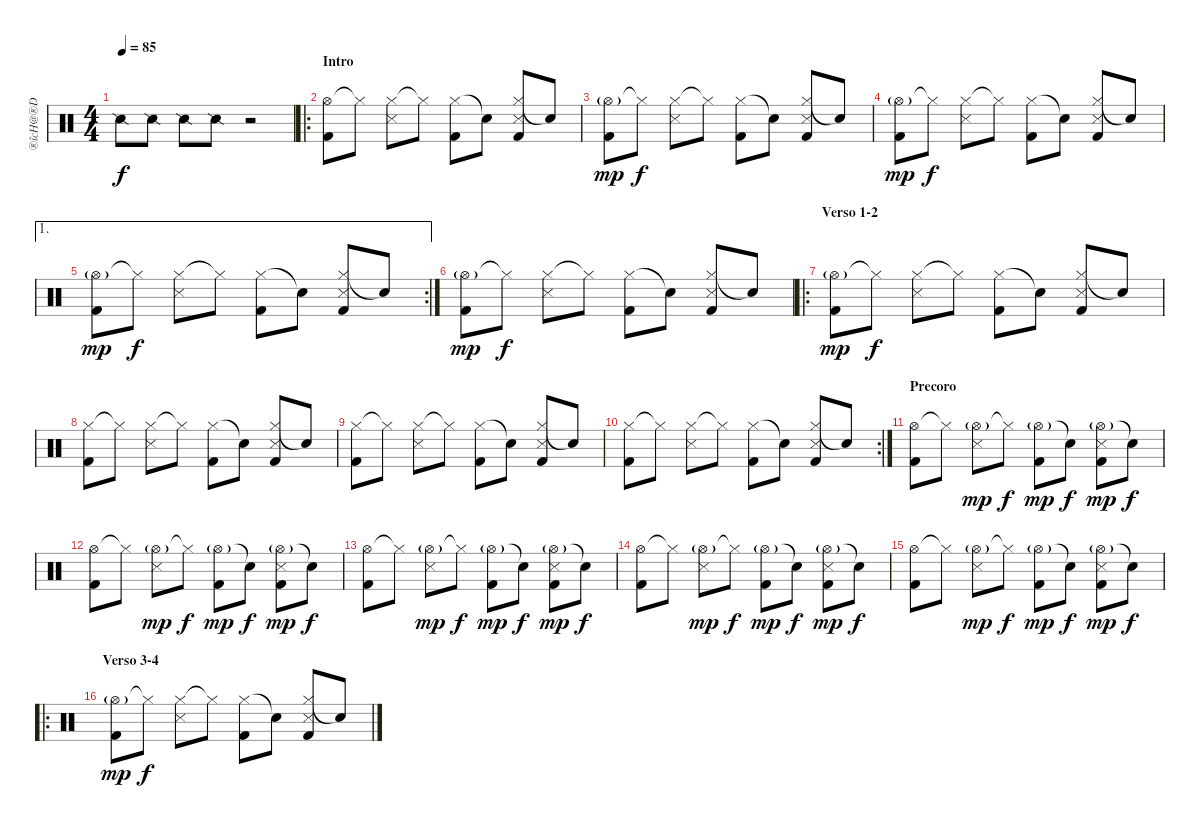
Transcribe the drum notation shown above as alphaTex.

\track ("®îcH@®D" "®îcH@®D") {instrument percussion}
\staff {score}
\articulation defaults
\ts (4 4)
\tempo 85
\clef neutral
\ks c "Snare (side stick) 2".8{dy f} "Snare (side stick) 2".8 "Snare (side stick) 2".8 "Snare (side stick) 2".8
r.2 |
\ro
\section ("" "Intro")
("Hi-Hat (open)" "Kick (hit) 2").8 "Hi-Hat (closed)"{t}.8 ("Hi-Hat (closed)" "Snare (side stick) 3").8 "Hi-Hat (closed)"{t}.8 ("Hi-Hat (closed)" "Kick (hit) 2").8 "Snare (hit)"{t}.8 ("Hi-Hat (closed)" "Snare (side stick) 3" "Kick (hit) 2").8 "Snare (hit)"{t}.8 |
("Hi-Hat (open)"{g} "Kick (hit) 2").8{dy mp} "Hi-Hat (closed)"{t}.8{dy f} ("Hi-Hat (closed)" "Snare (side stick) 3").8 "Hi-Hat (closed)"{t}.8 ("Hi-Hat (closed)" "Kick (hit) 2").8 "Snare (hit)"{t}.8 ("Hi-Hat (closed)" "Snare (side stick) 3" "Kick (hit) 2").8 "Snare (hit)"{t}.8 |
("Hi-Hat (open)"{g} "Kick (hit) 2").8{dy mp} "Hi-Hat (closed)"{t}.8{dy f} ("Hi-Hat (closed)" "Snare (side stick) 3").8 "Hi-Hat (closed)"{t}.8 ("Hi-Hat (closed)" "Kick (hit) 2").8 "Snare (hit)"{t}.8 ("Hi-Hat (closed)" "Snare (side stick) 3" "Kick (hit) 2").8 "Snare (hit)"{t}.8 |
\ae 1
\rc 2
("Hi-Hat (open)"{g} "Kick (hit) 2").8{dy mp} "Hi-Hat (closed)"{t}.8{dy f} ("Hi-Hat (closed)" "Snare (side stick) 3").8 "Hi-Hat (closed)"{t}.8 ("Hi-Hat (closed)" "Kick (hit) 2").8 "Snare (hit)"{t}.8 ("Hi-Hat (closed)" "Snare (side stick) 3" "Kick (hit) 2").8 "Snare (hit)"{t}.8 |
("Hi-Hat (open)"{g} "Kick (hit) 2").8{dy mp} "Hi-Hat (closed)"{t}.8{dy f} ("Hi-Hat (closed)" "Snare (side stick) 3").8 "Hi-Hat (closed)"{t}.8 ("Hi-Hat (closed)" "Kick (hit) 2").8 "Snare (hit)"{t}.8 ("Hi-Hat (closed)" "Snare (side stick) 3" "Kick (hit) 2").8 "Snare (hit)"{t}.8 |
\ro
\section ("" "Verso 1-2")
("Hi-Hat (open)"{g} "Kick (hit) 2").8{dy mp} "Hi-Hat (closed)"{t}.8{dy f} ("Hi-Hat (closed)" "Snare (side stick) 3").8 "Hi-Hat (closed)"{t}.8 ("Hi-Hat (closed)" "Kick (hit) 2").8 "Snare (hit)"{t}.8 ("Hi-Hat (closed)" "Snare (side stick) 3" "Kick (hit) 2").8 "Snare (hit)"{t}.8 |
("Hi-Hat (closed)" "Kick (hit) 2").8 "Hi-Hat (closed)"{t}.8 ("Hi-Hat (closed)" "Snare (side stick) 3").8 "Hi-Hat (closed)"{t}.8 ("Hi-Hat (closed)" "Kick (hit) 2").8 "Snare (hit)"{t}.8 ("Hi-Hat (closed)" "Snare (side stick) 3" "Kick (hit) 2").8 "Snare (hit)"{t}.8 |
("Hi-Hat (closed)" "Kick (hit) 2").8 "Hi-Hat (closed)"{t}.8 ("Hi-Hat (closed)" "Snare (side stick) 3").8 "Hi-Hat (closed)"{t}.8 ("Hi-Hat (closed)" "Kick (hit) 2").8 "Snare (hit)"{t}.8 ("Hi-Hat (closed)" "Snare (side stick) 3" "Kick (hit) 2").8 "Snare (hit)"{t}.8 |
\rc 2
("Hi-Hat (closed)" "Kick (hit) 2").8 "Hi-Hat (closed)"{t}.8 ("Hi-Hat (closed)" "Snare (side stick) 3").8 "Hi-Hat (closed)"{t}.8 ("Hi-Hat (closed)" "Kick (hit) 2").8 "Snare (hit)"{t}.8 ("Hi-Hat (closed)" "Snare (side stick) 3" "Kick (hit) 2").8 "Snare (hit)"{t}.8 |
\section ("" "Precoro")
("Hi-Hat (open)" "Kick (hit) 2").8{volume 16} "Hi-Hat (closed)"{t}.8 ("Hi-Hat (open)"{g} "Snare (side stick) 3").8{dy mp} "Hi-Hat (closed)"{t}.8{dy f} ("Hi-Hat (open)"{g} "Kick (hit) 2").8{dy mp} "Snare (hit)"{t}.8{dy f} ("Hi-Hat (open)"{g} "Snare (side stick) 3" "Kick (hit) 2").8{dy mp} "Snare (hit)"{t}.8{dy f} |
("Hi-Hat (open)" "Kick (hit) 2").8 "Hi-Hat (closed)"{t}.8 ("Hi-Hat (open)"{g} "Snare (side stick) 3").8{dy mp} "Hi-Hat (closed)"{t}.8{dy f} ("Hi-Hat (open)"{g} "Kick (hit) 2").8{dy mp} "Snare (hit)"{t}.8{dy f} ("Hi-Hat (open)"{g} "Snare (side stick) 3" "Kick (hit) 2").8{dy mp} "Snare (hit)"{t}.8{dy f} |
("Hi-Hat (open)" "Kick (hit) 2").8 "Hi-Hat (closed)"{t}.8 ("Hi-Hat (open)"{g} "Snare (side stick) 3").8{dy mp} "Hi-Hat (closed)"{t}.8{dy f} ("Hi-Hat (open)"{g} "Kick (hit) 2").8{dy mp} "Snare (hit)"{t}.8{dy f} ("Hi-Hat (open)"{g} "Snare (side stick) 3" "Kick (hit) 2").8{dy mp} "Snare (hit)"{t}.8{dy f} |
("Hi-Hat (open)" "Kick (hit) 2").8 "Hi-Hat (closed)"{t}.8 ("Hi-Hat (open)"{g} "Snare (side stick) 3").8{dy mp} "Hi-Hat (closed)"{t}.8{dy f} ("Hi-Hat (open)"{g} "Kick (hit) 2").8{dy mp} "Snare (hit)"{t}.8{dy f} ("Hi-Hat (open)"{g} "Snare (side stick) 3" "Kick (hit) 2").8{dy mp} "Snare (hit)"{t}.8{dy f} |
("Hi-Hat (open)" "Kick (hit) 2").8 "Hi-Hat (closed)"{t}.8 ("Hi-Hat (open)"{g} "Snare (side stick) 3").8{dy mp} "Hi-Hat (closed)"{t}.8{dy f} ("Hi-Hat (open)"{g} "Kick (hit) 2").8{dy mp} "Snare (hit)"{t}.8{dy f} ("Hi-Hat (open)"{g} "Snare (side stick) 3" "Kick (hit) 2").8{dy mp} "Snare (hit)"{t}.8{dy f} |
\ro
\section ("" "Verso 3-4")
("Hi-Hat (open)"{g} "Kick (hit) 2").8{dy mp volume 13} "Hi-Hat (closed)"{t}.8{dy f} ("Hi-Hat (closed)" "Snare (side stick) 3").8 "Hi-Hat (closed)"{t}.8 ("Hi-Hat (closed)" "Kick (hit) 2").8 "Snare (hit)"{t}.8 ("Hi-Hat (closed)" "Snare (side stick) 3" "Kick (hit) 2").8 "Snare (hit)"{t}.8
